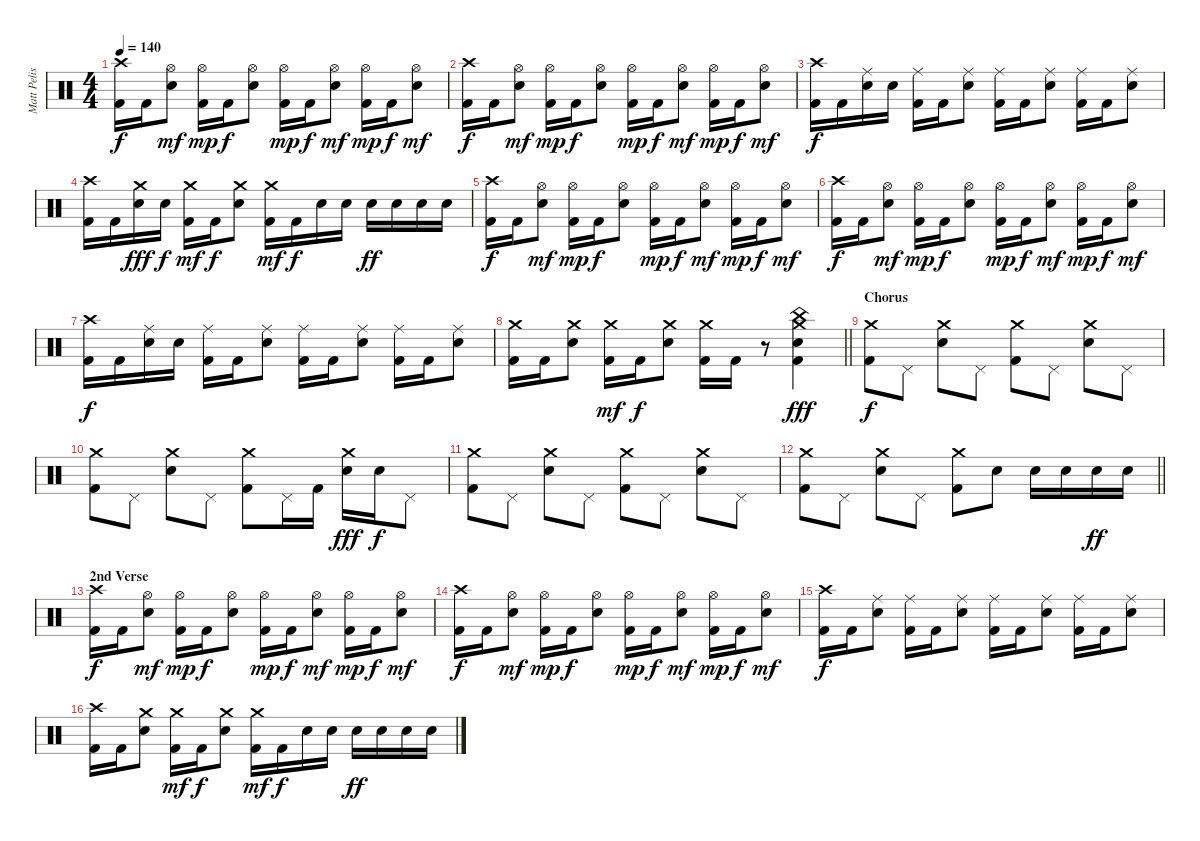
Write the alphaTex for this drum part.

\track ("Matt Pelissier" "Matt Pelis") {instrument percussion}
\staff {score}
\articulation defaults
\ts (4 4)
\tempo 140
\clef neutral
\ks c
("Crash high (hit)" "Kick (hit) 2").16{dy f} "Kick (hit) 2".16 ("Hi-Hat (open)" "Snare (hit) 2").8{dy mf} ("Hi-Hat (open)" "Kick (hit) 2").16{dy mp} "Kick (hit) 2".16{dy f} ("Hi-Hat (open)" "Snare (hit) 2").8 ("Hi-Hat (open)" "Kick (hit) 2").16{dy mp} "Kick (hit) 2".16{dy f} ("Hi-Hat (open)" "Snare (hit) 2").8{dy mf} ("Hi-Hat (open)" "Kick (hit) 2").16{dy mp} "Kick (hit) 2".16{dy f} ("Hi-Hat (open)" "Snare (hit) 2").8{dy mf} |
("Crash high (hit)" "Kick (hit) 2").16{dy f} "Kick (hit) 2".16 ("Hi-Hat (open)" "Snare (hit) 2").8{dy mf} ("Hi-Hat (open)" "Kick (hit) 2").16{dy mp} "Kick (hit) 2".16{dy f} ("Hi-Hat (open)" "Snare (hit) 2").8 ("Hi-Hat (open)" "Kick (hit) 2").16{dy mp} "Kick (hit) 2".16{dy f} ("Hi-Hat (open)" "Snare (hit) 2").8{dy mf} ("Hi-Hat (open)" "Kick (hit) 2").16{dy mp} "Kick (hit) 2".16{dy f} ("Hi-Hat (open)" "Snare (hit) 2").8{dy mf} |
("Crash high (hit)" "Kick (hit) 2").16{dy f} "Kick (hit) 2".16 ("Ride (middle)" "Snare (hit) 2").16 "Snare (hit) 2".16 ("Ride (middle)" "Kick (hit) 2").16 "Kick (hit) 2".16 ("Ride (middle)" "Snare (hit) 2").8 ("Ride (middle)" "Kick (hit) 2").16 "Kick (hit) 2".16 ("Ride (middle)" "Snare (hit) 2").8 ("Ride (middle)" "Kick (hit) 2").16 "Kick (hit) 2".16 ("Ride (middle)" "Snare (hit) 2").8 |
("Crash high (hit)" "Kick (hit) 2").16 "Kick (hit) 2".16 ("Crash medium (hit)" "Snare (hit) 2").16{dy fff} "Snare (hit) 2".16{dy f} ("Crash medium (hit)" "Kick (hit) 2").16{dy mf} "Kick (hit) 2".16{dy f} ("Crash medium (hit)" "Snare (hit) 2").8 ("Crash medium (hit)" "Kick (hit) 2").16{dy mf} "Kick (hit) 2".16{dy f} "Snare (hit) 2".16 "Snare (hit) 2".16 "Snare (hit) 2".16{dy ff} "Snare (hit) 2".16 "Snare (hit) 2".16 "Snare (hit) 2".16 |
("Crash high (hit)" "Kick (hit) 2").16{dy f} "Kick (hit) 2".16 ("Hi-Hat (open)" "Snare (hit) 2").8{dy mf} ("Hi-Hat (open)" "Kick (hit) 2").16{dy mp} "Kick (hit) 2".16{dy f} ("Hi-Hat (open)" "Snare (hit) 2").8 ("Hi-Hat (open)" "Kick (hit) 2").16{dy mp} "Kick (hit) 2".16{dy f} ("Hi-Hat (open)" "Snare (hit) 2").8{dy mf} ("Hi-Hat (open)" "Kick (hit) 2").16{dy mp} "Kick (hit) 2".16{dy f} ("Hi-Hat (open)" "Snare (hit) 2").8{dy mf} |
("Crash high (hit)" "Kick (hit) 2").16{dy f} "Kick (hit) 2".16 ("Hi-Hat (open)" "Snare (hit) 2").8{dy mf} ("Hi-Hat (open)" "Kick (hit) 2").16{dy mp} "Kick (hit) 2".16{dy f} ("Hi-Hat (open)" "Snare (hit) 2").8 ("Hi-Hat (open)" "Kick (hit) 2").16{dy mp} "Kick (hit) 2".16{dy f} ("Hi-Hat (open)" "Snare (hit) 2").8{dy mf} ("Hi-Hat (open)" "Kick (hit) 2").16{dy mp} "Kick (hit) 2".16{dy f} ("Hi-Hat (open)" "Snare (hit) 2").8{dy mf} |
("Crash high (hit)" "Kick (hit) 2").16{dy f} "Kick (hit) 2".16 ("Ride (middle)" "Snare (hit) 2").16 "Snare (hit) 2".16 ("Ride (middle)" "Kick (hit) 2").16 "Kick (hit) 2".16 ("Ride (middle)" "Snare (hit) 2").8 ("Ride (middle)" "Kick (hit) 2").16 "Kick (hit) 2".16 ("Ride (middle)" "Snare (hit) 2").8 ("Ride (middle)" "Kick (hit) 2").16 "Kick (hit) 2".16 ("Ride (middle)" "Snare (hit) 2").8 |
\barLineRight lightlight
("Crash medium (hit)" "Kick (hit) 2").16 "Kick (hit) 2".16 ("Crash medium (hit)" "Snare (hit) 2").8 ("Crash medium (hit)" "Kick (hit) 2").16{dy mf} "Kick (hit) 2".16{dy f} ("Crash medium (hit)" "Snare (hit) 2").8 ("Crash medium (hit)" "Kick (hit) 2").16 "Kick (hit) 2".16 r.8 ("Crash medium (hit)" "China (hit)" "Snare (hit) 2" "Kick (hit) 2").4{dy fff} |
\section ("" "Chorus")
("Crash medium (hit)" "Kick (hit) 2").8{dy f} "Pedal Hi-Hat (hit)".8 ("Crash medium (hit)" "Snare (hit) 2").8 "Pedal Hi-Hat (hit)".8 ("Crash medium (hit)" "Kick (hit) 2").8 "Pedal Hi-Hat (hit)".8 ("Crash medium (hit)" "Snare (hit) 2").8 "Pedal Hi-Hat (hit)".8 |
("Crash medium (hit)" "Kick (hit) 2").8 "Pedal Hi-Hat (hit)".8 ("Crash medium (hit)" "Snare (hit) 2").8 "Pedal Hi-Hat (hit)".8 ("Crash medium (hit)" "Kick (hit) 2").8 "Pedal Hi-Hat (hit)".16 "Kick (hit) 2".16 ("Crash medium (hit)" "Snare (hit) 2").16{dy fff} "Snare (hit) 2".16{dy f} "Pedal Hi-Hat (hit)".8 |
("Crash medium (hit)" "Kick (hit) 2").8 "Pedal Hi-Hat (hit)".8 ("Crash medium (hit)" "Snare (hit) 2").8 "Pedal Hi-Hat (hit)".8 ("Crash medium (hit)" "Kick (hit) 2").8 "Pedal Hi-Hat (hit)".8 ("Crash medium (hit)" "Snare (hit) 2").8 "Pedal Hi-Hat (hit)".8 |
\barLineRight lightlight
("Crash medium (hit)" "Kick (hit) 2").8 "Pedal Hi-Hat (hit)".8 ("Crash medium (hit)" "Snare (hit) 2").8 "Pedal Hi-Hat (hit)".8 ("Crash medium (hit)" "Kick (hit) 2").8 "Snare (hit) 2".8 "Snare (hit) 2".16 "Snare (hit) 2".16 "Snare (hit) 2".16{dy ff} "Snare (hit) 2".16 |
\section ("" "2nd Verse")
("Crash high (hit)" "Kick (hit) 2").16{dy f} "Kick (hit) 2".16 ("Hi-Hat (open)" "Snare (hit) 2").8{dy mf} ("Hi-Hat (open)" "Kick (hit) 2").16{dy mp} "Kick (hit) 2".16{dy f} ("Hi-Hat (open)" "Snare (hit) 2").8 ("Hi-Hat (open)" "Kick (hit) 2").16{dy mp} "Kick (hit) 2".16{dy f} ("Hi-Hat (open)" "Snare (hit) 2").8{dy mf} ("Hi-Hat (open)" "Kick (hit) 2").16{dy mp} "Kick (hit) 2".16{dy f} ("Hi-Hat (open)" "Snare (hit) 2").8{dy mf} |
("Crash high (hit)" "Kick (hit) 2").16{dy f} "Kick (hit) 2".16 ("Hi-Hat (open)" "Snare (hit) 2").8{dy mf} ("Hi-Hat (open)" "Kick (hit) 2").16{dy mp} "Kick (hit) 2".16{dy f} ("Hi-Hat (open)" "Snare (hit) 2").8 ("Hi-Hat (open)" "Kick (hit) 2").16{dy mp} "Kick (hit) 2".16{dy f} ("Hi-Hat (open)" "Snare (hit) 2").8{dy mf} ("Hi-Hat (open)" "Kick (hit) 2").16{dy mp} "Kick (hit) 2".16{dy f} ("Hi-Hat (open)" "Snare (hit) 2").8{dy mf} |
("Crash high (hit)" "Kick (hit) 2").16{dy f} "Kick (hit) 2".16 ("Ride (middle)" "Snare (hit) 2").8 ("Ride (middle)" "Kick (hit) 2").16 "Kick (hit) 2".16 ("Ride (middle)" "Snare (hit) 2").8 ("Ride (middle)" "Kick (hit) 2").16 "Kick (hit) 2".16 ("Ride (middle)" "Snare (hit) 2").8 ("Ride (middle)" "Kick (hit) 2").16 "Kick (hit) 2".16 ("Ride (middle)" "Snare (hit) 2").8 |
("Crash high (hit)" "Kick (hit) 2").16 "Kick (hit) 2".16 ("Crash medium (hit)" "Snare (hit) 2").8 ("Crash medium (hit)" "Kick (hit) 2").16{dy mf} "Kick (hit) 2".16{dy f} ("Crash medium (hit)" "Snare (hit) 2").8 ("Crash medium (hit)" "Kick (hit) 2").16{dy mf} "Kick (hit) 2".16{dy f} "Snare (hit) 2".16 "Snare (hit) 2".16 "Snare (hit) 2".16{dy ff} "Snare (hit) 2".16 "Snare (hit) 2".16 "Snare (hit) 2".16
